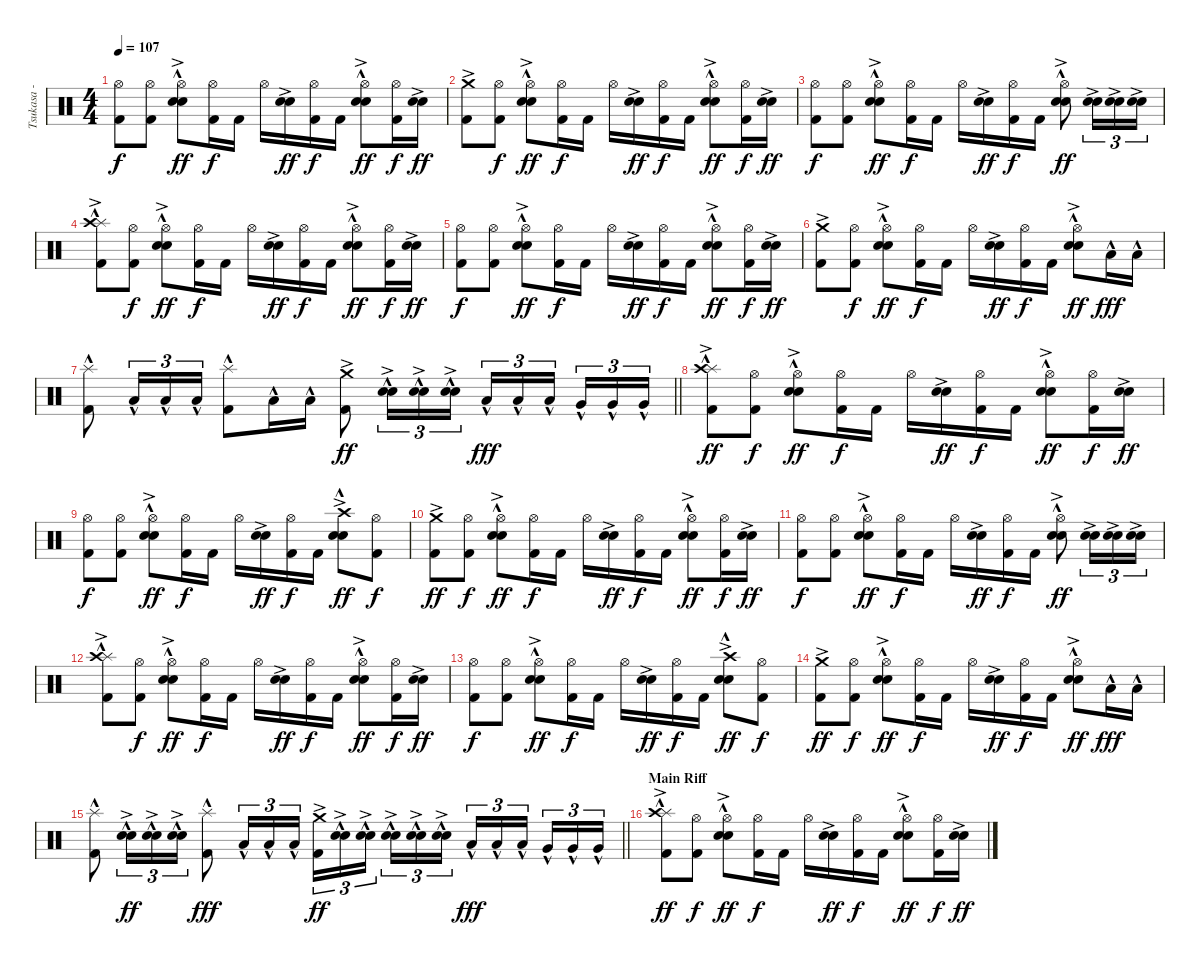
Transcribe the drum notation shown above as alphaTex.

\track ("Tsukasa - Drums" "Tsukasa - ") {instrument percussion}
\staff {score}
\articulation defaults
\ts (4 4)
\tempo 107
\clef neutral
\ks c
("Hi-Hat (open)" "Kick (hit) 2").8{dy f} ("Hi-Hat (open)" "Kick (hit) 2").8 ("Hi-Hat (open)" "Electric Snare (hit)"{hac} "Snare (hit) 2"{ac}).8{dy ff} ("Hi-Hat (open)" "Kick (hit) 2").16{dy f} "Kick (hit) 2".16 "Hi-Hat (open)".16 ("Electric Snare (hit)"{ac} "Snare (hit) 2").16{dy ff} ("Hi-Hat (open)" "Kick (hit) 2").16{dy f} "Kick (hit) 2".16 ("Hi-Hat (open)" "Electric Snare (hit)"{hac} "Snare (hit) 2"{ac}).8{dy ff} ("Hi-Hat (open)" "Kick (hit) 2").16{dy f} ("Electric Snare (hit)"{ac} "Snare (hit) 2").16{dy ff} |
("Crash medium (hit)"{ac} "Kick (hit) 2").8 ("Hi-Hat (open)" "Kick (hit) 2").8{dy f} ("Hi-Hat (open)" "Electric Snare (hit)"{hac} "Snare (hit) 2"{ac}).8{dy ff} ("Hi-Hat (open)" "Kick (hit) 2").16{dy f} "Kick (hit) 2".16 "Hi-Hat (open)".16 ("Electric Snare (hit)"{ac} "Snare (hit) 2").16{dy ff} ("Hi-Hat (open)" "Kick (hit) 2").16{dy f} "Kick (hit) 2".16 ("Hi-Hat (open)" "Electric Snare (hit)"{hac} "Snare (hit) 2"{ac}).8{dy ff} ("Hi-Hat (open)" "Kick (hit) 2").16{dy f} ("Electric Snare (hit)"{ac} "Snare (hit) 2").16{dy ff} |
("Hi-Hat (open)" "Kick (hit) 2").8{dy f} ("Hi-Hat (open)" "Kick (hit) 2").8 ("Hi-Hat (open)" "Electric Snare (hit)"{hac} "Snare (hit) 2"{ac}).8{dy ff} ("Hi-Hat (open)" "Kick (hit) 2").16{dy f} "Kick (hit) 2".16 "Hi-Hat (open)".16 ("Electric Snare (hit)"{ac} "Snare (hit) 2").16{dy ff} ("Hi-Hat (open)" "Kick (hit) 2").16{dy f} "Kick (hit) 2".16 ("Hi-Hat (open)" "Electric Snare (hit)"{hac} "Snare (hit) 2"{ac}).8{dy ff} ("Electric Snare (hit)"{ac} "Snare (hit) 2"{ac}).16{tu (3 2)} ("Electric Snare (hit)"{ac} "Snare (hit) 2"{ac}).16{tu (3 2)} ("Electric Snare (hit)"{ac} "Snare (hit) 2"{ac}).16{tu (3 2)} |
("Splash (hit)"{hac} "Crash high (hit)"{ac} "Kick (hit) 2").8 ("Hi-Hat (open)" "Kick (hit) 2").8{dy f} ("Hi-Hat (open)" "Electric Snare (hit)"{hac} "Snare (hit) 2"{ac}).8{dy ff} ("Hi-Hat (open)" "Kick (hit) 2").16{dy f} "Kick (hit) 2".16 "Hi-Hat (open)".16 ("Electric Snare (hit)"{ac} "Snare (hit) 2").16{dy ff} ("Hi-Hat (open)" "Kick (hit) 2").16{dy f} "Kick (hit) 2".16 ("Hi-Hat (open)" "Electric Snare (hit)"{hac} "Snare (hit) 2"{ac}).8{dy ff} ("Hi-Hat (open)" "Kick (hit) 2").16{dy f} ("Electric Snare (hit)"{ac} "Snare (hit) 2").16{dy ff} |
("Hi-Hat (open)" "Kick (hit) 2").8{dy f} ("Hi-Hat (open)" "Kick (hit) 2").8 ("Hi-Hat (open)" "Electric Snare (hit)"{hac} "Snare (hit) 2"{ac}).8{dy ff} ("Hi-Hat (open)" "Kick (hit) 2").16{dy f} "Kick (hit) 2".16 "Hi-Hat (open)".16 ("Electric Snare (hit)"{ac} "Snare (hit) 2").16{dy ff} ("Hi-Hat (open)" "Kick (hit) 2").16{dy f} "Kick (hit) 2".16 ("Hi-Hat (open)" "Electric Snare (hit)"{hac} "Snare (hit) 2"{ac}).8{dy ff} ("Hi-Hat (open)" "Kick (hit) 2").16{dy f} ("Electric Snare (hit)"{ac} "Snare (hit) 2").16{dy ff} |
("Crash medium (hit)"{ac} "Kick (hit) 2").8 ("Hi-Hat (open)" "Kick (hit) 2").8{dy f} ("Hi-Hat (open)" "Electric Snare (hit)"{hac} "Snare (hit) 2"{ac}).8{dy ff} ("Hi-Hat (open)" "Kick (hit) 2").16{dy f} "Kick (hit) 2".16 "Hi-Hat (open)".16 ("Electric Snare (hit)"{ac} "Snare (hit) 2").16{dy ff} ("Hi-Hat (open)" "Kick (hit) 2").16{dy f} "Kick (hit) 2".16 ("Hi-Hat (open)" "Electric Snare (hit)"{hac} "Snare (hit) 2"{ac}).8{dy ff} "Low Tom (hit)"{hac}.16{dy fff} "Low Tom (hit)"{hac}.16 |
\barLineRight lightlight
("Splash (hit)"{hac} "Kick (hit) 2").8 "Low Tom (hit)"{hac}.16{tu (3 2)} "Low Tom (hit)"{hac}.16{tu (3 2)} "Low Tom (hit)"{hac}.16{tu (3 2)} ("Splash (hit)"{hac} "Kick (hit) 2").8 "Low Tom (hit)"{hac}.16 "Low Tom (hit)"{hac}.16 ("Crash medium (hit)"{ac} "Kick (hit) 2").8{dy ff} ("Electric Snare (hit)"{hac} "Snare (hit) 2"{ac}).16{tu (3 2)} ("Electric Snare (hit)"{hac} "Snare (hit) 2"{ac}).16{tu (3 2)} ("Electric Snare (hit)"{hac} "Snare (hit) 2"{ac}).16{tu (3 2)} "Low Tom (hit)"{hac}.16{tu (3 2) dy fff} "Low Tom (hit)"{hac}.16{tu (3 2)} "Low Tom (hit)"{hac}.16{tu (3 2) beam splitsecondary} "Very Low Tom (hit)"{hac}.16{tu (3 2)} "Very Low Tom (hit)"{hac}.16{tu (3 2)} "Very Low Tom (hit)"{hac}.16{tu (3 2)} |
\section ("" "")
("Splash (hit)"{hac} "Crash high (hit)"{ac} "Kick (hit) 2").8{dy ff} ("Hi-Hat (open)" "Kick (hit) 2").8{dy f} ("Hi-Hat (open)" "Electric Snare (hit)"{hac} "Snare (hit) 2"{ac}).8{dy ff} ("Hi-Hat (open)" "Kick (hit) 2").16{dy f} "Kick (hit) 2".16 "Hi-Hat (open)".16 ("Electric Snare (hit)"{ac} "Snare (hit) 2").16{dy ff} ("Hi-Hat (open)" "Kick (hit) 2").16{dy f} "Kick (hit) 2".16 ("Hi-Hat (open)" "Electric Snare (hit)"{hac} "Snare (hit) 2"{ac}).8{dy ff} ("Hi-Hat (open)" "Kick (hit) 2").16{dy f} ("Electric Snare (hit)"{ac} "Snare (hit) 2").16{dy ff} |
("Hi-Hat (open)" "Kick (hit) 2").8{dy f} ("Hi-Hat (open)" "Kick (hit) 2").8 ("Hi-Hat (open)" "Electric Snare (hit)"{hac} "Snare (hit) 2"{ac}).8{dy ff} ("Hi-Hat (open)" "Kick (hit) 2").16{dy f} "Kick (hit) 2".16 "Hi-Hat (open)".16 ("Electric Snare (hit)"{ac} "Snare (hit) 2").16{dy ff} ("Hi-Hat (open)" "Kick (hit) 2").16{dy f} "Kick (hit) 2".16 ("Crash high (hit)"{ac} "Electric Snare (hit)"{hac} "Snare (hit) 2"{ac}).8{dy ff} ("Hi-Hat (open)" "Kick (hit) 2").8{dy f} |
("Crash medium (hit)"{ac} "Kick (hit) 2").8{dy ff} ("Hi-Hat (open)" "Kick (hit) 2").8{dy f} ("Hi-Hat (open)" "Electric Snare (hit)"{hac} "Snare (hit) 2"{ac}).8{dy ff} ("Hi-Hat (open)" "Kick (hit) 2").16{dy f} "Kick (hit) 2".16 "Hi-Hat (open)".16 ("Electric Snare (hit)"{ac} "Snare (hit) 2").16{dy ff} ("Hi-Hat (open)" "Kick (hit) 2").16{dy f} "Kick (hit) 2".16 ("Hi-Hat (open)" "Electric Snare (hit)"{hac} "Snare (hit) 2"{ac}).8{dy ff} ("Hi-Hat (open)" "Kick (hit) 2").16{dy f} ("Electric Snare (hit)"{ac} "Snare (hit) 2").16{dy ff} |
("Hi-Hat (open)" "Kick (hit) 2").8{dy f} ("Hi-Hat (open)" "Kick (hit) 2").8 ("Hi-Hat (open)" "Electric Snare (hit)"{hac} "Snare (hit) 2"{ac}).8{dy ff} ("Hi-Hat (open)" "Kick (hit) 2").16{dy f} "Kick (hit) 2".16 "Hi-Hat (open)".16 ("Electric Snare (hit)"{ac} "Snare (hit) 2").16{dy ff} ("Hi-Hat (open)" "Kick (hit) 2").16{dy f} "Kick (hit) 2".16 ("Hi-Hat (open)" "Electric Snare (hit)"{hac} "Snare (hit) 2"{ac}).8{dy ff} ("Electric Snare (hit)"{ac} "Snare (hit) 2"{ac}).16{tu (3 2)} ("Electric Snare (hit)"{ac} "Snare (hit) 2"{ac}).16{tu (3 2)} ("Electric Snare (hit)"{ac} "Snare (hit) 2"{ac}).16{tu (3 2)} |
("Splash (hit)"{hac} "Crash high (hit)"{ac} "Kick (hit) 2").8 ("Hi-Hat (open)" "Kick (hit) 2").8{dy f} ("Hi-Hat (open)" "Electric Snare (hit)"{hac} "Snare (hit) 2"{ac}).8{dy ff} ("Hi-Hat (open)" "Kick (hit) 2").16{dy f} "Kick (hit) 2".16 "Hi-Hat (open)".16 ("Electric Snare (hit)"{ac} "Snare (hit) 2").16{dy ff} ("Hi-Hat (open)" "Kick (hit) 2").16{dy f} "Kick (hit) 2".16 ("Hi-Hat (open)" "Electric Snare (hit)"{hac} "Snare (hit) 2"{ac}).8{dy ff} ("Hi-Hat (open)" "Kick (hit) 2").16{dy f} ("Electric Snare (hit)"{ac} "Snare (hit) 2").16{dy ff} |
("Hi-Hat (open)" "Kick (hit) 2").8{dy f} ("Hi-Hat (open)" "Kick (hit) 2").8 ("Hi-Hat (open)" "Electric Snare (hit)"{hac} "Snare (hit) 2"{ac}).8{dy ff} ("Hi-Hat (open)" "Kick (hit) 2").16{dy f} "Kick (hit) 2".16 "Hi-Hat (open)".16 ("Electric Snare (hit)"{ac} "Snare (hit) 2").16{dy ff} ("Hi-Hat (open)" "Kick (hit) 2").16{dy f} "Kick (hit) 2".16 ("Crash high (hit)"{ac} "Electric Snare (hit)"{hac} "Snare (hit) 2"{ac}).8{dy ff} ("Hi-Hat (open)" "Kick (hit) 2").8{dy f} |
("Crash medium (hit)"{ac} "Kick (hit) 2").8{dy ff} ("Hi-Hat (open)" "Kick (hit) 2").8{dy f} ("Hi-Hat (open)" "Electric Snare (hit)"{hac} "Snare (hit) 2"{ac}).8{dy ff} ("Hi-Hat (open)" "Kick (hit) 2").16{dy f} "Kick (hit) 2".16 "Hi-Hat (open)".16 ("Electric Snare (hit)"{ac} "Snare (hit) 2").16{dy ff} ("Hi-Hat (open)" "Kick (hit) 2").16{dy f} "Kick (hit) 2".16 ("Hi-Hat (open)" "Electric Snare (hit)"{hac} "Snare (hit) 2"{ac}).8{dy ff} "Low Tom (hit)"{hac}.16{dy fff} "Low Tom (hit)"{hac}.16 |
\barLineRight lightlight
("Splash (hit)"{hac} "Kick (hit) 2").8 ("Electric Snare (hit)"{hac} "Snare (hit) 2"{ac}).16{tu (3 2) dy ff} ("Electric Snare (hit)"{hac} "Snare (hit) 2"{ac}).16{tu (3 2)} ("Electric Snare (hit)"{hac} "Snare (hit) 2"{ac}).16{tu (3 2)} ("Splash (hit)"{hac} "Kick (hit) 2").8{dy fff} "Low Tom (hit)"{hac}.16{tu (3 2)} "Low Tom (hit)"{hac}.16{tu (3 2)} "Low Tom (hit)"{hac}.16{tu (3 2)} ("Crash medium (hit)"{ac} "Kick (hit) 2").16{tu (3 2) dy ff} ("Electric Snare (hit)"{hac} "Snare (hit) 2"{ac}).16{tu (3 2)} ("Electric Snare (hit)"{hac} "Snare (hit) 2"{ac}).16{tu (3 2) beam splitsecondary} ("Electric Snare (hit)"{hac} "Snare (hit) 2"{ac}).16{tu (3 2)} ("Electric Snare (hit)"{hac} "Snare (hit) 2"{ac}).16{tu (3 2)} ("Electric Snare (hit)"{hac} "Snare (hit) 2"{ac}).16{tu (3 2)} "Low Tom (hit)"{hac}.16{tu (3 2) dy fff} "Low Tom (hit)"{hac}.16{tu (3 2)} "Low Tom (hit)"{hac}.16{tu (3 2) beam splitsecondary} "Very Low Tom (hit)"{hac}.16{tu (3 2)} "Very Low Tom (hit)"{hac}.16{tu (3 2)} "Very Low Tom (hit)"{hac}.16{tu (3 2)} |
\section ("" "Main Riff")
("Splash (hit)"{hac} "Crash high (hit)"{ac} "Kick (hit) 2").8{dy ff} ("Hi-Hat (open)" "Kick (hit) 2").8{dy f} ("Hi-Hat (open)" "Electric Snare (hit)"{hac} "Snare (hit) 2"{ac}).8{dy ff} ("Hi-Hat (open)" "Kick (hit) 2").16{dy f} "Kick (hit) 2".16 "Hi-Hat (open)".16 ("Electric Snare (hit)"{ac} "Snare (hit) 2").16{dy ff} ("Hi-Hat (open)" "Kick (hit) 2").16{dy f} "Kick (hit) 2".16 ("Hi-Hat (open)" "Electric Snare (hit)"{hac} "Snare (hit) 2"{ac}).8{dy ff} ("Hi-Hat (open)" "Kick (hit) 2").16{dy f} ("Electric Snare (hit)"{ac} "Snare (hit) 2").16{dy ff}
